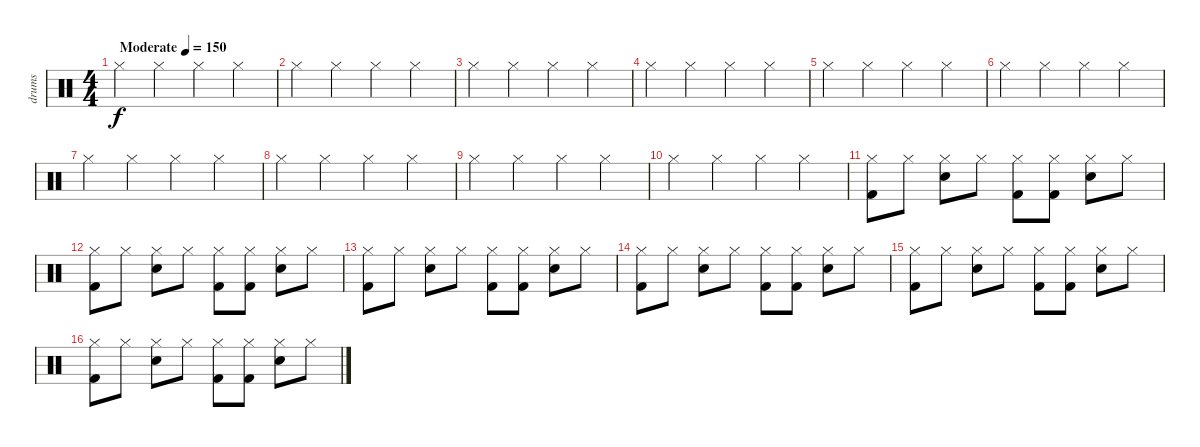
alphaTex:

\track ("drums" "drums") {instrument percussion}
\staff {score}
\articulation defaults
\ts (4 4)
\tempo (150 "Moderate")
\clef neutral
\ks c "Hi-Hat (closed)".4{dy f} "Hi-Hat (closed)".4 "Hi-Hat (closed)".4 "Hi-Hat (closed)".4
|
"Hi-Hat (closed)".4 "Hi-Hat (closed)".4 "Hi-Hat (closed)".4 "Hi-Hat (closed)".4 |
"Hi-Hat (closed)".4 "Hi-Hat (closed)".4 "Hi-Hat (closed)".4 "Hi-Hat (closed)".4 |
"Hi-Hat (closed)".4 "Hi-Hat (closed)".4 "Hi-Hat (closed)".4 "Hi-Hat (closed)".4 |
"Hi-Hat (closed)".4 "Hi-Hat (closed)".4 "Hi-Hat (closed)".4 "Hi-Hat (closed)".4 |
"Hi-Hat (closed)".4 "Hi-Hat (closed)".4 "Hi-Hat (closed)".4 "Hi-Hat (closed)".4 |
"Hi-Hat (closed)".4 "Hi-Hat (closed)".4 "Hi-Hat (closed)".4 "Hi-Hat (closed)".4 |
"Hi-Hat (closed)".4 "Hi-Hat (closed)".4 "Hi-Hat (closed)".4 "Hi-Hat (closed)".4 |
"Hi-Hat (closed)".4 "Hi-Hat (closed)".4 "Hi-Hat (closed)".4 "Hi-Hat (closed)".4 |
"Hi-Hat (closed)".4 "Hi-Hat (closed)".4 "Hi-Hat (closed)".4 "Hi-Hat (closed)".4 |
("Kick (hit) 2" "Hi-Hat (closed)").8 "Hi-Hat (closed)".8 ("Snare (hit) 2" "Hi-Hat (closed)").8 "Hi-Hat (closed)".8 ("Kick (hit) 2" "Hi-Hat (closed)").8 ("Kick (hit) 2" "Hi-Hat (closed)").8 ("Snare (hit) 2" "Hi-Hat (closed)").8 "Hi-Hat (closed)".8 |
("Kick (hit) 2" "Hi-Hat (closed)").8 "Hi-Hat (closed)".8 ("Snare (hit) 2" "Hi-Hat (closed)").8 "Hi-Hat (closed)".8 ("Kick (hit) 2" "Hi-Hat (closed)").8 ("Kick (hit) 2" "Hi-Hat (closed)").8 ("Snare (hit) 2" "Hi-Hat (closed)").8 "Hi-Hat (closed)".8 |
("Kick (hit) 2" "Hi-Hat (closed)").8 "Hi-Hat (closed)".8 ("Snare (hit) 2" "Hi-Hat (closed)").8 "Hi-Hat (closed)".8 ("Kick (hit) 2" "Hi-Hat (closed)").8 ("Kick (hit) 2" "Hi-Hat (closed)").8 ("Snare (hit) 2" "Hi-Hat (closed)").8 "Hi-Hat (closed)".8 |
("Kick (hit) 2" "Hi-Hat (closed)").8 "Hi-Hat (closed)".8 ("Snare (hit) 2" "Hi-Hat (closed)").8 "Hi-Hat (closed)".8 ("Kick (hit) 2" "Hi-Hat (closed)").8 ("Kick (hit) 2" "Hi-Hat (closed)").8 ("Snare (hit) 2" "Hi-Hat (closed)").8 "Hi-Hat (closed)".8 |
("Kick (hit) 2" "Hi-Hat (closed)").8 "Hi-Hat (closed)".8 ("Snare (hit) 2" "Hi-Hat (closed)").8 "Hi-Hat (closed)".8 ("Kick (hit) 2" "Hi-Hat (closed)").8 ("Kick (hit) 2" "Hi-Hat (closed)").8 ("Snare (hit) 2" "Hi-Hat (closed)").8 "Hi-Hat (closed)".8 |
("Kick (hit) 2" "Hi-Hat (closed)").8 "Hi-Hat (closed)".8 ("Snare (hit) 2" "Hi-Hat (closed)").8 "Hi-Hat (closed)".8 ("Kick (hit) 2" "Hi-Hat (closed)").8 ("Kick (hit) 2" "Hi-Hat (closed)").8 ("Snare (hit) 2" "Hi-Hat (closed)").8 "Hi-Hat (closed)".8
